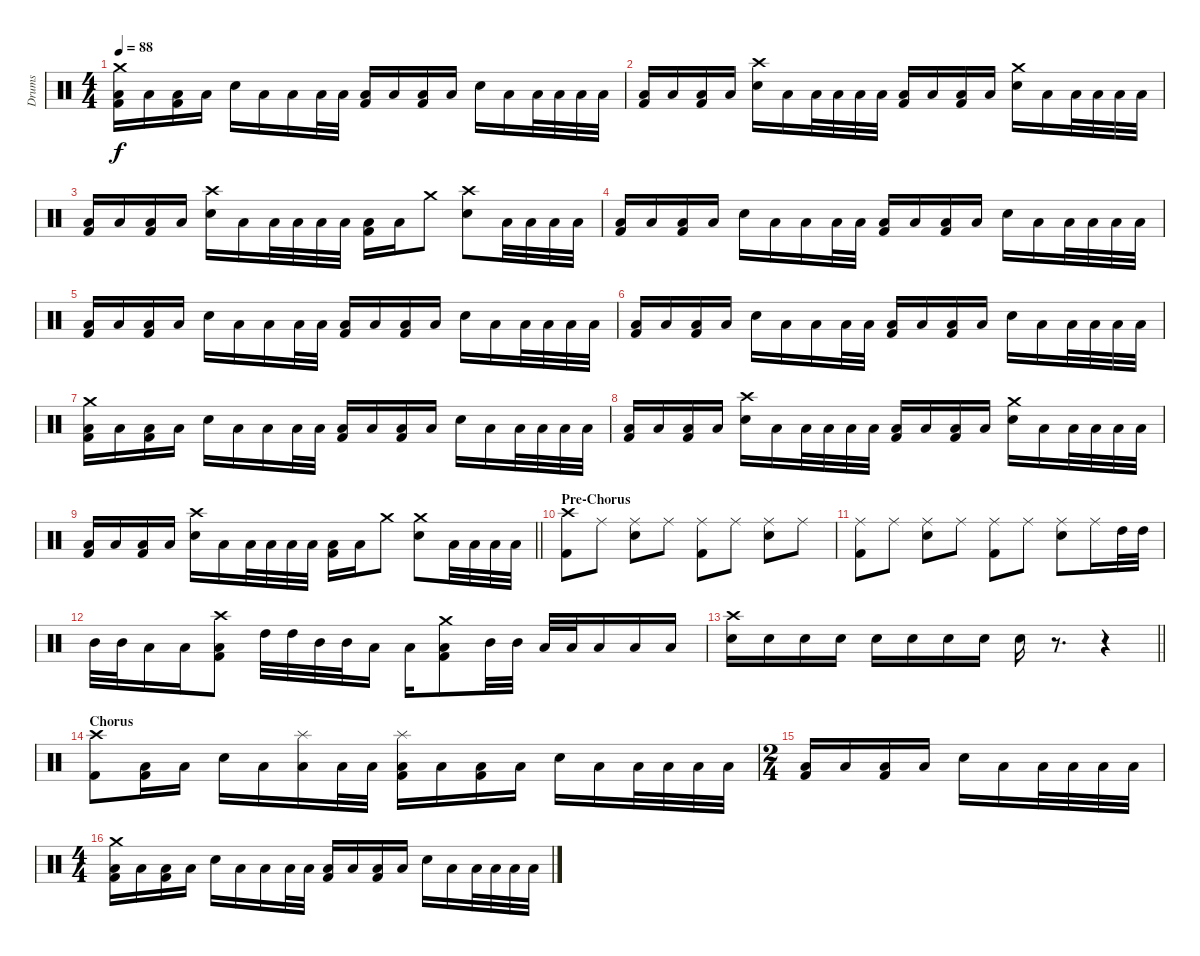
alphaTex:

\track ("Drums" "Drums") {instrument percussion}
\staff {score}
\articulation defaults
\ts (4 4)
\tempo 88
\clef neutral
\ks c
("Crash medium (hit)" "Low Tom (hit)" "Kick (hit) 2").16{dy f} "Low Tom (hit)".16 ("Low Tom (hit)" "Kick (hit) 2").16 "Low Tom (hit)".16 "Snare (hit) 2".16 "Low Tom (hit)".16 "Low Tom (hit)".16 "Low Tom (hit)".32 "Low Tom (hit)".32 ("Low Tom (hit)" "Kick (hit) 2").16 "Low Tom (hit)".16 ("Low Tom (hit)" "Kick (hit) 2").16 "Low Tom (hit)".16 "Snare (hit) 2".16 "Low Tom (hit)".16 "Low Tom (hit)".32 "Low Tom (hit)".32 "Low Tom (hit)".32 "Low Tom (hit)".32 |
("Low Tom (hit)" "Kick (hit) 2").16 "Low Tom (hit)".16 ("Low Tom (hit)" "Kick (hit) 2").16 "Low Tom (hit)".16 ("Crash high (hit)" "Snare (hit) 2").16 "Low Tom (hit)".16 "Low Tom (hit)".32 "Low Tom (hit)".32 "Low Tom (hit)".32 "Low Tom (hit)".32 ("Low Tom (hit)" "Kick (hit) 2").16 "Low Tom (hit)".16 ("Low Tom (hit)" "Kick (hit) 2").16 "Low Tom (hit)".16 ("Crash medium (hit)" "Snare (hit) 2").16 "Low Tom (hit)".16 "Low Tom (hit)".32 "Low Tom (hit)".32 "Low Tom (hit)".32 "Low Tom (hit)".32 |
("Low Tom (hit)" "Kick (hit) 2").16 "Low Tom (hit)".16 ("Low Tom (hit)" "Kick (hit) 2").16 "Low Tom (hit)".16 ("Crash high (hit)" "Snare (hit) 2").16 "Low Tom (hit)".16 "Low Tom (hit)".32 "Low Tom (hit)".32 "Low Tom (hit)".32 "Low Tom (hit)".32 ("Low Tom (hit)" "Kick (hit) 2").16 "Low Tom (hit)".16 "Crash medium (hit)".8 ("Crash high (hit)" "Snare (hit) 2").8 "Low Tom (hit)".32 "Low Tom (hit)".32 "Low Tom (hit)".32 "Low Tom (hit)".32 |
("Low Tom (hit)" "Kick (hit) 2").16 "Low Tom (hit)".16 ("Low Tom (hit)" "Kick (hit) 2").16 "Low Tom (hit)".16 "Snare (hit) 2".16 "Low Tom (hit)".16 "Low Tom (hit)".16 "Low Tom (hit)".32 "Low Tom (hit)".32 ("Low Tom (hit)" "Kick (hit) 2").16 "Low Tom (hit)".16 ("Low Tom (hit)" "Kick (hit) 2").16 "Low Tom (hit)".16 "Snare (hit) 2".16 "Low Tom (hit)".16 "Low Tom (hit)".32 "Low Tom (hit)".32 "Low Tom (hit)".32 "Low Tom (hit)".32 |
("Low Tom (hit)" "Kick (hit) 2").16 "Low Tom (hit)".16 ("Low Tom (hit)" "Kick (hit) 2").16 "Low Tom (hit)".16 "Snare (hit) 2".16 "Low Tom (hit)".16 "Low Tom (hit)".16 "Low Tom (hit)".32 "Low Tom (hit)".32 ("Low Tom (hit)" "Kick (hit) 2").16 "Low Tom (hit)".16 ("Low Tom (hit)" "Kick (hit) 2").16 "Low Tom (hit)".16 "Snare (hit) 2".16 "Low Tom (hit)".16 "Low Tom (hit)".32 "Low Tom (hit)".32 "Low Tom (hit)".32 "Low Tom (hit)".32 |
("Low Tom (hit)" "Kick (hit) 2").16 "Low Tom (hit)".16 ("Low Tom (hit)" "Kick (hit) 2").16 "Low Tom (hit)".16 "Snare (hit) 2".16 "Low Tom (hit)".16 "Low Tom (hit)".16 "Low Tom (hit)".32 "Low Tom (hit)".32 ("Low Tom (hit)" "Kick (hit) 2").16 "Low Tom (hit)".16 ("Low Tom (hit)" "Kick (hit) 2").16 "Low Tom (hit)".16 "Snare (hit) 2".16 "Low Tom (hit)".16 "Low Tom (hit)".32 "Low Tom (hit)".32 "Low Tom (hit)".32 "Low Tom (hit)".32 |
("Crash medium (hit)" "Low Tom (hit)" "Kick (hit) 2").16 "Low Tom (hit)".16 ("Low Tom (hit)" "Kick (hit) 2").16 "Low Tom (hit)".16 "Snare (hit) 2".16 "Low Tom (hit)".16 "Low Tom (hit)".16 "Low Tom (hit)".32 "Low Tom (hit)".32 ("Low Tom (hit)" "Kick (hit) 2").16 "Low Tom (hit)".16 ("Low Tom (hit)" "Kick (hit) 2").16 "Low Tom (hit)".16 "Snare (hit) 2".16 "Low Tom (hit)".16 "Low Tom (hit)".32 "Low Tom (hit)".32 "Low Tom (hit)".32 "Low Tom (hit)".32 |
("Low Tom (hit)" "Kick (hit) 2").16 "Low Tom (hit)".16 ("Low Tom (hit)" "Kick (hit) 2").16 "Low Tom (hit)".16 ("Crash high (hit)" "Snare (hit) 2").16 "Low Tom (hit)".16 "Low Tom (hit)".32 "Low Tom (hit)".32 "Low Tom (hit)".32 "Low Tom (hit)".32 ("Low Tom (hit)" "Kick (hit) 2").16 "Low Tom (hit)".16 ("Low Tom (hit)" "Kick (hit) 2").16 "Low Tom (hit)".16 ("Crash medium (hit)" "Snare (hit) 2").16 "Low Tom (hit)".16 "Low Tom (hit)".32 "Low Tom (hit)".32 "Low Tom (hit)".32 "Low Tom (hit)".32 |
\barLineRight lightlight
("Low Tom (hit)" "Kick (hit) 2").16 "Low Tom (hit)".16 ("Low Tom (hit)" "Kick (hit) 2").16 "Low Tom (hit)".16 ("Crash high (hit)" "Snare (hit) 2").16 "Low Tom (hit)".16 "Low Tom (hit)".32 "Low Tom (hit)".32 "Low Tom (hit)".32 "Low Tom (hit)".32 ("Low Tom (hit)" "Kick (hit) 2").16 "Low Tom (hit)".16 "Crash medium (hit)".8 ("Crash medium (hit)" "Snare (hit) 2").8 "Low Tom (hit)".32 "Low Tom (hit)".32 "Low Tom (hit)".32 "Low Tom (hit)".32 |
\section ("" "Pre-Chorus")
("Crash high (hit)" "Kick (hit) 2").8 "Ride (middle)".8 ("Ride (middle)" "Snare (hit) 2").8 "Ride (middle)".8 ("Ride (middle)" "Kick (hit) 2").8 "Ride (middle)".8 ("Ride (middle)" "Snare (hit) 2").8 "Ride (middle)".8 |
("Ride (middle)" "Kick (hit) 2").8 "Ride (middle)".8 ("Ride (middle)" "Snare (hit) 2").8 "Ride (middle)".8 ("Ride (middle)" "Kick (hit) 2").8 "Ride (middle)".8 ("Ride (middle)" "Snare (hit) 2").8 "Ride (middle)".16 "High Tom (hit)".32 "High Tom (hit)".32 |
"Mid Tom (hit)".32 "Mid Tom (hit)".32 "Low Tom (hit)".16 "Low Tom (hit)".16 ("Crash high (hit)" "Low Tom (hit)" "Kick (hit) 2").8 "High Tom (hit)".32 "High Tom (hit)".32 "Mid Tom (hit)".32 "Mid Tom (hit)".32 "Low Tom (hit)".16 "Low Tom (hit)".16 ("Crash medium (hit)" "Low Tom (hit)" "Kick (hit) 2").8 "Mid Tom (hit)".32 "Mid Tom (hit)".32 "Low Tom (hit)".32 "Low Tom (hit)".32 "Low Tom (hit)".16 "Low Tom (hit)".16 "Low Tom (hit)".16 |
\barLineRight lightlight
("Crash high (hit)" "Snare (hit) 2").16 "Snare (hit) 2".16 "Snare (hit) 2".16 "Snare (hit) 2".16 "Snare (hit) 2".16 "Snare (hit) 2".16 "Snare (hit) 2".16 "Snare (hit) 2".16 "Snare (hit) 2".16 r.8{d} r.4 |
\section ("" "Chorus")
("Crash high (hit)" "Kick (hit) 2").8 ("Low Tom (hit)" "Kick (hit) 2").16 "Low Tom (hit)".16 "Snare (hit) 2".16 "Low Tom (hit)".16 ("Splash (hit)" "Low Tom (hit)").16 "Low Tom (hit)".32 "Low Tom (hit)".32 ("Splash (hit)" "Low Tom (hit)" "Kick (hit) 2").16 "Low Tom (hit)".16 ("Low Tom (hit)" "Kick (hit) 2").16 "Low Tom (hit)".16 "Snare (hit) 2".16 "Low Tom (hit)".16 "Low Tom (hit)".32 "Low Tom (hit)".32 "Low Tom (hit)".32 "Low Tom (hit)".32 |
\ts (2 4)
("Low Tom (hit)" "Kick (hit) 2").16 "Low Tom (hit)".16 ("Low Tom (hit)" "Kick (hit) 2").16 "Low Tom (hit)".16 "Snare (hit) 2".16 "Low Tom (hit)".16 "Low Tom (hit)".32 "Low Tom (hit)".32 "Low Tom (hit)".32 "Low Tom (hit)".32 |
\ts (4 4)
("Crash medium (hit)" "Low Tom (hit)" "Kick (hit) 2").16 "Low Tom (hit)".16 ("Low Tom (hit)" "Kick (hit) 2").16 "Low Tom (hit)".16 "Snare (hit) 2".16 "Low Tom (hit)".16 "Low Tom (hit)".16 "Low Tom (hit)".32 "Low Tom (hit)".32 ("Low Tom (hit)" "Kick (hit) 2").16 "Low Tom (hit)".16 ("Low Tom (hit)" "Kick (hit) 2").16 "Low Tom (hit)".16 "Snare (hit) 2".16 "Low Tom (hit)".16 "Low Tom (hit)".32 "Low Tom (hit)".32 "Low Tom (hit)".32 "Low Tom (hit)".32
